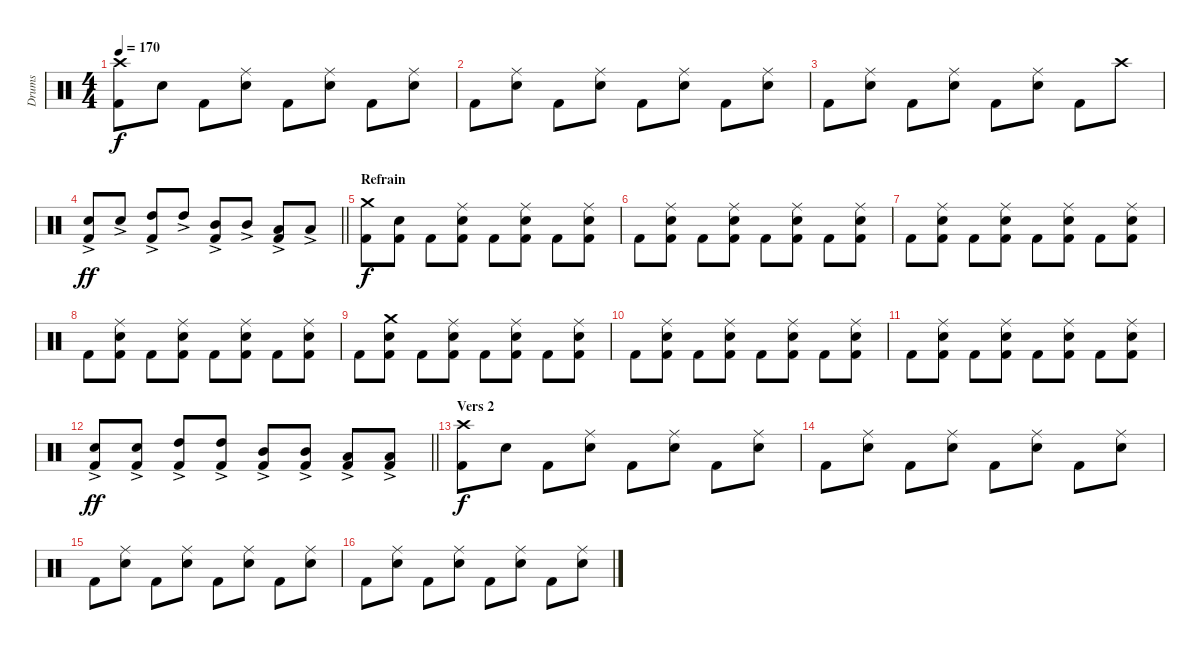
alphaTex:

\track ("Drums" "Drums") {instrument percussion}
\staff {score}
\articulation defaults
\ts (4 4)
\tempo 170
\clef neutral
\ks c
("Crash high (hit)" "Kick (hit) 2").8{dy f} "Snare (hit) 2".8 "Kick (hit) 2".8 ("Ride (middle)" "Snare (hit) 2").8 "Kick (hit) 2".8 ("Ride (middle)" "Snare (hit) 2").8 "Kick (hit) 2".8 ("Ride (middle)" "Snare (hit) 2").8 |
"Kick (hit) 2".8 ("Ride (middle)" "Snare (hit) 2").8 "Kick (hit) 2".8 ("Ride (middle)" "Snare (hit) 2").8 "Kick (hit) 2".8 ("Ride (middle)" "Snare (hit) 2").8 "Kick (hit) 2".8 ("Ride (middle)" "Snare (hit) 2").8 |
"Kick (hit) 2".8 ("Ride (middle)" "Snare (hit) 2").8 "Kick (hit) 2".8 ("Ride (middle)" "Snare (hit) 2").8 "Kick (hit) 2".8 ("Ride (middle)" "Snare (hit) 2").8 "Kick (hit) 2".8 "Crash high (hit)".8 |
\barLineRight lightlight
("Snare (hit) 2"{ac} "Kick (hit) 2").8{dy ff} "Snare (hit) 2"{ac}.8 ("High Tom (hit)"{ac} "Kick (hit) 2").8 "High Tom (hit)"{ac}.8 ("Mid Tom (hit)"{ac} "Kick (hit) 2").8 "Mid Tom (hit)"{ac}.8 ("Low Tom (hit)"{ac} "Kick (hit) 2").8 "Low Tom (hit)"{ac}.8 |
\section ("" "Refrain")
("Crash medium (hit)" "Kick (hit) 2").8{dy f} ("Snare (hit) 2" "Kick (hit) 2").8 "Kick (hit) 2".8 ("Ride (middle)" "Snare (hit) 2" "Kick (hit) 2").8 "Kick (hit) 2".8 ("Ride (middle)" "Snare (hit) 2" "Kick (hit) 2").8 "Kick (hit) 2".8 ("Ride (middle)" "Snare (hit) 2" "Kick (hit) 2").8 |
"Kick (hit) 2".8 ("Ride (middle)" "Snare (hit) 2" "Kick (hit) 2").8 "Kick (hit) 2".8 ("Ride (middle)" "Snare (hit) 2" "Kick (hit) 2").8 "Kick (hit) 2".8 ("Ride (middle)" "Snare (hit) 2" "Kick (hit) 2").8 "Kick (hit) 2".8 ("Ride (middle)" "Snare (hit) 2" "Kick (hit) 2").8 |
"Kick (hit) 2".8 ("Ride (middle)" "Snare (hit) 2" "Kick (hit) 2").8 "Kick (hit) 2".8 ("Ride (middle)" "Snare (hit) 2" "Kick (hit) 2").8 "Kick (hit) 2".8 ("Ride (middle)" "Snare (hit) 2" "Kick (hit) 2").8 "Kick (hit) 2".8 ("Ride (middle)" "Snare (hit) 2" "Kick (hit) 2").8 |
"Kick (hit) 2".8 ("Ride (middle)" "Snare (hit) 2" "Kick (hit) 2").8 "Kick (hit) 2".8 ("Ride (middle)" "Snare (hit) 2" "Kick (hit) 2").8 "Kick (hit) 2".8 ("Ride (middle)" "Snare (hit) 2" "Kick (hit) 2").8 "Kick (hit) 2".8 ("Ride (middle)" "Snare (hit) 2" "Kick (hit) 2").8 |
"Kick (hit) 2".8 ("Crash medium (hit)" "Snare (hit) 2" "Kick (hit) 2").8 "Kick (hit) 2".8 ("Ride (middle)" "Snare (hit) 2" "Kick (hit) 2").8 "Kick (hit) 2".8 ("Ride (middle)" "Snare (hit) 2" "Kick (hit) 2").8 "Kick (hit) 2".8 ("Ride (middle)" "Snare (hit) 2" "Kick (hit) 2").8 |
"Kick (hit) 2".8 ("Ride (middle)" "Snare (hit) 2" "Kick (hit) 2").8 "Kick (hit) 2".8 ("Ride (middle)" "Snare (hit) 2" "Kick (hit) 2").8 "Kick (hit) 2".8 ("Ride (middle)" "Snare (hit) 2" "Kick (hit) 2").8 "Kick (hit) 2".8 ("Ride (middle)" "Snare (hit) 2" "Kick (hit) 2").8 |
"Kick (hit) 2".8 ("Ride (middle)" "Snare (hit) 2" "Kick (hit) 2").8 "Kick (hit) 2".8 ("Ride (middle)" "Snare (hit) 2" "Kick (hit) 2").8 "Kick (hit) 2".8 ("Ride (middle)" "Snare (hit) 2" "Kick (hit) 2").8 "Kick (hit) 2".8 ("Ride (middle)" "Snare (hit) 2" "Kick (hit) 2").8 |
\barLineRight lightlight
("Snare (hit) 2"{ac} "Kick (hit) 2").8{dy ff} ("Snare (hit) 2"{ac} "Kick (hit) 2").8 ("High Tom (hit)"{ac} "Kick (hit) 2").8 ("High Tom (hit)"{ac} "Kick (hit) 2").8 ("Mid Tom (hit)"{ac} "Kick (hit) 2").8 ("Mid Tom (hit)"{ac} "Kick (hit) 2").8 ("Low Tom (hit)"{ac} "Kick (hit) 2").8 ("Low Tom (hit)"{ac} "Kick (hit) 2").8 |
\section ("" "Vers 2")
("Crash high (hit)" "Kick (hit) 2").8{dy f} "Snare (hit) 2".8 "Kick (hit) 2".8 ("Ride (middle)" "Snare (hit) 2").8 "Kick (hit) 2".8 ("Ride (middle)" "Snare (hit) 2").8 "Kick (hit) 2".8 ("Ride (middle)" "Snare (hit) 2").8 |
"Kick (hit) 2".8 ("Ride (middle)" "Snare (hit) 2").8 "Kick (hit) 2".8 ("Ride (middle)" "Snare (hit) 2").8 "Kick (hit) 2".8 ("Ride (middle)" "Snare (hit) 2").8 "Kick (hit) 2".8 ("Ride (middle)" "Snare (hit) 2").8 |
"Kick (hit) 2".8 ("Ride (middle)" "Snare (hit) 2").8 "Kick (hit) 2".8 ("Ride (middle)" "Snare (hit) 2").8 "Kick (hit) 2".8 ("Ride (middle)" "Snare (hit) 2").8 "Kick (hit) 2".8 ("Ride (middle)" "Snare (hit) 2").8 |
"Kick (hit) 2".8 ("Ride (middle)" "Snare (hit) 2").8 "Kick (hit) 2".8 ("Ride (middle)" "Snare (hit) 2").8 "Kick (hit) 2".8 ("Ride (middle)" "Snare (hit) 2").8 "Kick (hit) 2".8 ("Ride (middle)" "Snare (hit) 2").8
